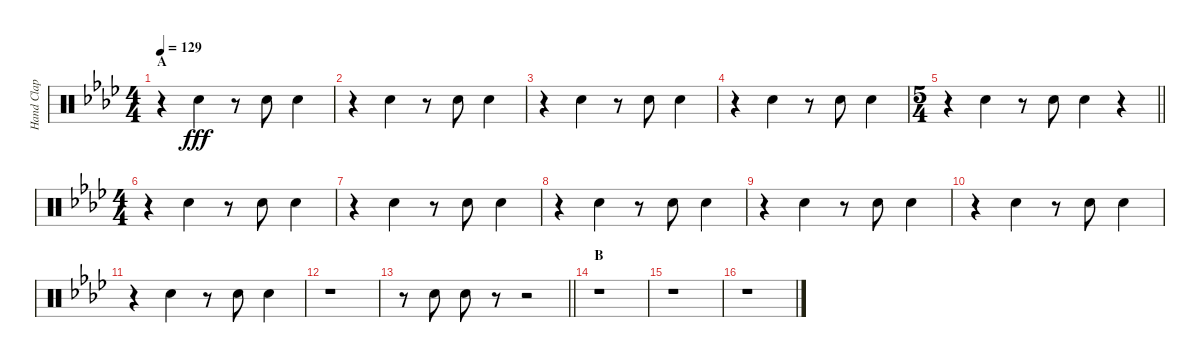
\track ("Hand Clap" "Hand Clap") {instrument percussion}
\staff {score}
\articulation defaults
\ts (4 4)
\section ("" "A")
\tempo 129
\clef neutral
\ks ab
r.4{dy fff} "Hand Clap (hit)".4 r.8 "Hand Clap (hit)".8 "Hand Clap (hit)".4 |
r.4 "Hand Clap (hit)".4 r.8 "Hand Clap (hit)".8 "Hand Clap (hit)".4 |
r.4 "Hand Clap (hit)".4 r.8 "Hand Clap (hit)".8 "Hand Clap (hit)".4 |
r.4 "Hand Clap (hit)".4 r.8 "Hand Clap (hit)".8 "Hand Clap (hit)".4 |
\ts (5 4)
\barLineRight lightlight
r.4 "Hand Clap (hit)".4 r.8 "Hand Clap (hit)".8 "Hand Clap (hit)".4 r.4 |
\ts (4 4)
r.4 "Hand Clap (hit)".4 r.8 "Hand Clap (hit)".8 "Hand Clap (hit)".4 |
r.4 "Hand Clap (hit)".4 r.8 "Hand Clap (hit)".8 "Hand Clap (hit)".4 |
r.4 "Hand Clap (hit)".4 r.8 "Hand Clap (hit)".8 "Hand Clap (hit)".4 |
r.4 "Hand Clap (hit)".4 r.8 "Hand Clap (hit)".8 "Hand Clap (hit)".4 |
r.4 "Hand Clap (hit)".4 r.8 "Hand Clap (hit)".8 "Hand Clap (hit)".4 |
r.4 "Hand Clap (hit)".4 r.8 "Hand Clap (hit)".8 "Hand Clap (hit)".4 |
r.1 |
\barLineRight lightlight
r.8 "Hand Clap (hit)".8 "Hand Clap (hit)".8 r.8 r.2 |
\section ("" "B")
r.1 |
r.1 |
r.1
